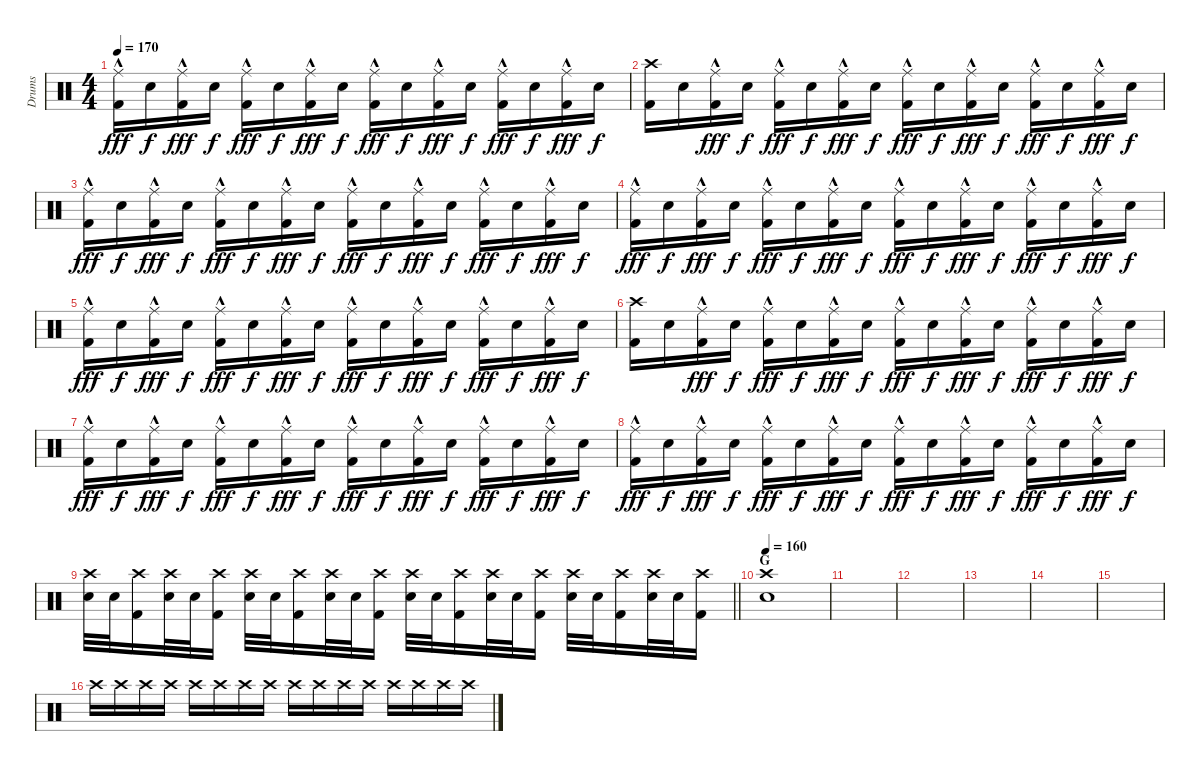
\track ("Drums" "Drums") {instrument percussion}
\staff {score}
\articulation defaults
\ts (4 4)
\tempo 170
\clef neutral
\ks c
("Ride (middle)"{hac} "Kick (hit) 2").16{dy fff} "Snare (hit) 2".16{dy f} ("Ride (middle)"{hac} "Kick (hit) 2").16{dy fff} "Snare (hit) 2".16{dy f} ("Ride (middle)"{hac} "Kick (hit) 2").16{dy fff} "Snare (hit) 2".16{dy f} ("Ride (middle)"{hac} "Kick (hit) 2").16{dy fff} "Snare (hit) 2".16{dy f} ("Ride (middle)"{hac} "Kick (hit) 2").16{dy fff} "Snare (hit) 2".16{dy f} ("Ride (middle)"{hac} "Kick (hit) 2").16{dy fff} "Snare (hit) 2".16{dy f} ("Ride (middle)"{hac} "Kick (hit) 2").16{dy fff} "Snare (hit) 2".16{dy f} ("Ride (middle)"{hac} "Kick (hit) 2").16{dy fff} "Snare (hit) 2".16{dy f} |
("Crash high (hit)" "Kick (hit) 2").16 "Snare (hit) 2".16 ("Ride (middle)"{hac} "Kick (hit) 2").16{dy fff} "Snare (hit) 2".16{dy f} ("Ride (middle)"{hac} "Kick (hit) 2").16{dy fff} "Snare (hit) 2".16{dy f} ("Ride (middle)"{hac} "Kick (hit) 2").16{dy fff} "Snare (hit) 2".16{dy f} ("Ride (middle)"{hac} "Kick (hit) 2").16{dy fff} "Snare (hit) 2".16{dy f} ("Ride (middle)"{hac} "Kick (hit) 2").16{dy fff} "Snare (hit) 2".16{dy f} ("Ride (middle)"{hac} "Kick (hit) 2").16{dy fff} "Snare (hit) 2".16{dy f} ("Ride (middle)"{hac} "Kick (hit) 2").16{dy fff} "Snare (hit) 2".16{dy f} |
("Ride (middle)"{hac} "Kick (hit) 2").16{dy fff} "Snare (hit) 2".16{dy f} ("Ride (middle)"{hac} "Kick (hit) 2").16{dy fff} "Snare (hit) 2".16{dy f} ("Ride (middle)"{hac} "Kick (hit) 2").16{dy fff} "Snare (hit) 2".16{dy f} ("Ride (middle)"{hac} "Kick (hit) 2").16{dy fff} "Snare (hit) 2".16{dy f} ("Ride (middle)"{hac} "Kick (hit) 2").16{dy fff} "Snare (hit) 2".16{dy f} ("Ride (middle)"{hac} "Kick (hit) 2").16{dy fff} "Snare (hit) 2".16{dy f} ("Ride (middle)"{hac} "Kick (hit) 2").16{dy fff} "Snare (hit) 2".16{dy f} ("Ride (middle)"{hac} "Kick (hit) 2").16{dy fff} "Snare (hit) 2".16{dy f} |
("Ride (middle)"{hac} "Kick (hit) 2").16{dy fff} "Snare (hit) 2".16{dy f} ("Ride (middle)"{hac} "Kick (hit) 2").16{dy fff} "Snare (hit) 2".16{dy f} ("Ride (middle)"{hac} "Kick (hit) 2").16{dy fff} "Snare (hit) 2".16{dy f} ("Ride (middle)"{hac} "Kick (hit) 2").16{dy fff} "Snare (hit) 2".16{dy f} ("Ride (middle)"{hac} "Kick (hit) 2").16{dy fff} "Snare (hit) 2".16{dy f} ("Ride (middle)"{hac} "Kick (hit) 2").16{dy fff} "Snare (hit) 2".16{dy f} ("Ride (middle)"{hac} "Kick (hit) 2").16{dy fff} "Snare (hit) 2".16{dy f} ("Ride (middle)"{hac} "Kick (hit) 2").16{dy fff} "Snare (hit) 2".16{dy f} |
("Ride (middle)"{hac} "Kick (hit) 2").16{dy fff} "Snare (hit) 2".16{dy f} ("Ride (middle)"{hac} "Kick (hit) 2").16{dy fff} "Snare (hit) 2".16{dy f} ("Ride (middle)"{hac} "Kick (hit) 2").16{dy fff} "Snare (hit) 2".16{dy f} ("Ride (middle)"{hac} "Kick (hit) 2").16{dy fff} "Snare (hit) 2".16{dy f} ("Ride (middle)"{hac} "Kick (hit) 2").16{dy fff} "Snare (hit) 2".16{dy f} ("Ride (middle)"{hac} "Kick (hit) 2").16{dy fff} "Snare (hit) 2".16{dy f} ("Ride (middle)"{hac} "Kick (hit) 2").16{dy fff} "Snare (hit) 2".16{dy f} ("Ride (middle)"{hac} "Kick (hit) 2").16{dy fff} "Snare (hit) 2".16{dy f} |
("Crash high (hit)" "Kick (hit) 2").16 "Snare (hit) 2".16 ("Ride (middle)"{hac} "Kick (hit) 2").16{dy fff} "Snare (hit) 2".16{dy f} ("Ride (middle)"{hac} "Kick (hit) 2").16{dy fff} "Snare (hit) 2".16{dy f} ("Ride (middle)"{hac} "Kick (hit) 2").16{dy fff} "Snare (hit) 2".16{dy f} ("Ride (middle)"{hac} "Kick (hit) 2").16{dy fff} "Snare (hit) 2".16{dy f} ("Ride (middle)"{hac} "Kick (hit) 2").16{dy fff} "Snare (hit) 2".16{dy f} ("Ride (middle)"{hac} "Kick (hit) 2").16{dy fff} "Snare (hit) 2".16{dy f} ("Ride (middle)"{hac} "Kick (hit) 2").16{dy fff} "Snare (hit) 2".16{dy f} |
("Ride (middle)"{hac} "Kick (hit) 2").16{dy fff} "Snare (hit) 2".16{dy f} ("Ride (middle)"{hac} "Kick (hit) 2").16{dy fff} "Snare (hit) 2".16{dy f} ("Ride (middle)"{hac} "Kick (hit) 2").16{dy fff} "Snare (hit) 2".16{dy f} ("Ride (middle)"{hac} "Kick (hit) 2").16{dy fff} "Snare (hit) 2".16{dy f} ("Ride (middle)"{hac} "Kick (hit) 2").16{dy fff} "Snare (hit) 2".16{dy f} ("Ride (middle)"{hac} "Kick (hit) 2").16{dy fff} "Snare (hit) 2".16{dy f} ("Ride (middle)"{hac} "Kick (hit) 2").16{dy fff} "Snare (hit) 2".16{dy f} ("Ride (middle)"{hac} "Kick (hit) 2").16{dy fff} "Snare (hit) 2".16{dy f} |
("Ride (middle)"{hac} "Kick (hit) 2").16{dy fff} "Snare (hit) 2".16{dy f} ("Ride (middle)"{hac} "Kick (hit) 2").16{dy fff} "Snare (hit) 2".16{dy f} ("Ride (middle)"{hac} "Kick (hit) 2").16{dy fff} "Snare (hit) 2".16{dy f} ("Ride (middle)"{hac} "Kick (hit) 2").16{dy fff} "Snare (hit) 2".16{dy f} ("Ride (middle)"{hac} "Kick (hit) 2").16{dy fff} "Snare (hit) 2".16{dy f} ("Ride (middle)"{hac} "Kick (hit) 2").16{dy fff} "Snare (hit) 2".16{dy f} ("Ride (middle)"{hac} "Kick (hit) 2").16{dy fff} "Snare (hit) 2".16{dy f} ("Ride (middle)"{hac} "Kick (hit) 2").16{dy fff} "Snare (hit) 2".16{dy f} |
\barLineRight lightlight
("Crash high (hit)" "Snare (hit) 2").32 "Snare (hit) 2".32 ("Crash high (hit)" "Kick (hit) 2").16 ("Crash high (hit)" "Snare (hit) 2").32 "Snare (hit) 2".32 ("Crash high (hit)" "Kick (hit) 2").16 ("Crash high (hit)" "Snare (hit) 2").32 "Snare (hit) 2".32 ("Crash high (hit)" "Kick (hit) 2").16 ("Crash high (hit)" "Snare (hit) 2").32 "Snare (hit) 2".32 ("Crash high (hit)" "Kick (hit) 2").16 ("Crash high (hit)" "Snare (hit) 2").32 "Snare (hit) 2".32 ("Crash high (hit)" "Kick (hit) 2").16 ("Crash high (hit)" "Snare (hit) 2").32 "Snare (hit) 2".32 ("Crash high (hit)" "Kick (hit) 2").16 ("Crash high (hit)" "Snare (hit) 2").32 "Snare (hit) 2".32 ("Crash high (hit)" "Kick (hit) 2").16 ("Crash high (hit)" "Snare (hit) 2").32 "Snare (hit) 2".32 ("Crash high (hit)" "Kick (hit) 2").16 |
\section ("" "G")
\tempo 160
("Crash high (hit)" "Snare (hit) 2").1 |
|
|
|
|
|
"Crash high (hit)".16 "Crash high (hit)".16 "Crash high (hit)".16 "Crash high (hit)".16 "Crash high (hit)".16 "Crash high (hit)".16 "Crash high (hit)".16 "Crash high (hit)".16 "Crash high (hit)".16 "Crash high (hit)".16 "Crash high (hit)".16 "Crash high (hit)".16 "Crash high (hit)".16 "Crash high (hit)".16 "Crash high (hit)".16 "Crash high (hit)".16
